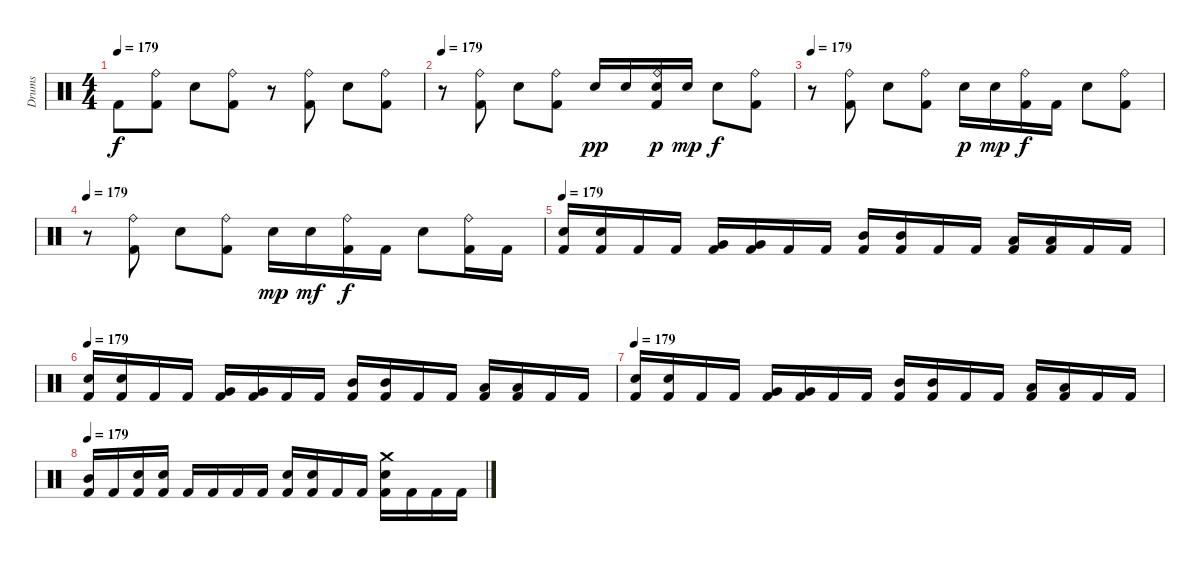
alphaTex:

\track ("Drums" "Drums") {instrument percussion}
\staff {score}
\articulation defaults
\ts (4 4)
\tempo 179
\clef neutral
\ks c "Kick (hit) 2".8{dy f}
("Ride (bell)" "Kick (hit) 2").8 "Electric Snare (hit)".8 ("Ride (bell)" "Kick (hit) 2").8 r.8 ("Ride (bell)" "Kick (hit) 2").8 "Electric Snare (hit)".8 ("Ride (bell)" "Kick (hit) 2").8 |
\tempo 179
r.8 ("Ride (bell)" "Kick (hit) 2").8 "Electric Snare (hit)".8 ("Ride (bell)" "Kick (hit) 2").8 "Electric Snare (hit)".16{dy pp} "Electric Snare (hit)".16 ("Ride (bell)" "Electric Snare (hit)" "Kick (hit) 2").16{dy p} "Electric Snare (hit)".16{dy mp} "Electric Snare (hit)".8{dy f} ("Ride (bell)" "Kick (hit) 2").8 |
\tempo 179
r.8 ("Ride (bell)" "Kick (hit) 2").8 "Electric Snare (hit)".8 ("Ride (bell)" "Kick (hit) 2").8 "Electric Snare (hit)".16{dy p} "Electric Snare (hit)".16{dy mp} ("Ride (bell)" "Kick (hit) 2").16{dy f} "Kick (hit) 2".16 "Electric Snare (hit)".8 ("Ride (bell)" "Kick (hit) 2").8 |
\tempo 179
r.8 ("Ride (bell)" "Kick (hit) 2").8 "Electric Snare (hit)".8 ("Ride (bell)" "Kick (hit) 2").8 "Electric Snare (hit)".16{dy mp} "Electric Snare (hit)".16{dy mf} ("Ride (bell)" "Kick (hit) 2").16{dy f} "Kick (hit) 2".16 "Electric Snare (hit)".8 ("Ride (bell)" "Kick (hit) 2").16 "Kick (hit) 2".16 |
\tempo 179
("Electric Snare (hit)" "Kick (hit) 2").16 ("Electric Snare (hit)" "Kick (hit) 2").16 "Kick (hit) 2".16 "Kick (hit) 2".16 ("Very Low Tom (hit)" "Kick (hit) 2").16 ("Very Low Tom (hit)" "Kick (hit) 2").16 "Kick (hit) 2".16 "Kick (hit) 2".16 ("Mid Tom (hit)" "Kick (hit) 2").16 ("Mid Tom (hit)" "Kick (hit) 2").16 "Kick (hit) 2".16 "Kick (hit) 2".16 ("Low Tom (hit)" "Kick (hit) 2").16 ("Low Tom (hit)" "Kick (hit) 2").16 "Kick (hit) 2".16 "Kick (hit) 2".16 |
\tempo 179
("Electric Snare (hit)" "Kick (hit) 2").16 ("Electric Snare (hit)" "Kick (hit) 2").16 "Kick (hit) 2".16 "Kick (hit) 2".16 ("Very Low Tom (hit)" "Kick (hit) 2").16 ("Very Low Tom (hit)" "Kick (hit) 2").16 "Kick (hit) 2".16 "Kick (hit) 2".16 ("Mid Tom (hit)" "Kick (hit) 2").16 ("Mid Tom (hit)" "Kick (hit) 2").16 "Kick (hit) 2".16 "Kick (hit) 2".16 ("Low Tom (hit)" "Kick (hit) 2").16 ("Low Tom (hit)" "Kick (hit) 2").16 "Kick (hit) 2".16 "Kick (hit) 2".16 |
\tempo 179
("Electric Snare (hit)" "Kick (hit) 2").16 ("Electric Snare (hit)" "Kick (hit) 2").16 "Kick (hit) 2".16 "Kick (hit) 2".16 ("Very Low Tom (hit)" "Kick (hit) 2").16 ("Very Low Tom (hit)" "Kick (hit) 2").16 "Kick (hit) 2".16 "Kick (hit) 2".16 ("Mid Tom (hit)" "Kick (hit) 2").16 ("Mid Tom (hit)" "Kick (hit) 2").16 "Kick (hit) 2".16 "Kick (hit) 2".16 ("Low Tom (hit)" "Kick (hit) 2").16 ("Low Tom (hit)" "Kick (hit) 2").16 "Kick (hit) 2".16 "Kick (hit) 2".16 |
\tempo 179
("Mid Tom (hit)" "Kick (hit) 2").16 "Kick (hit) 2".16 ("Electric Snare (hit)" "Kick (hit) 2").16 ("Electric Snare (hit)" "Kick (hit) 2").16 "Kick (hit) 2".16 "Kick (hit) 2".16 "Kick (hit) 2".16 "Kick (hit) 2".16 ("Electric Snare (hit)" "Kick (hit) 2").16 ("Electric Snare (hit)" "Kick (hit) 2").16 "Kick (hit) 2".16 "Kick (hit) 2".16 ("Crash medium (hit)" "Electric Snare (hit)" "Kick (hit) 2").16 "Kick (hit) 2".16 "Kick (hit) 2".16 "Kick (hit) 2".16
